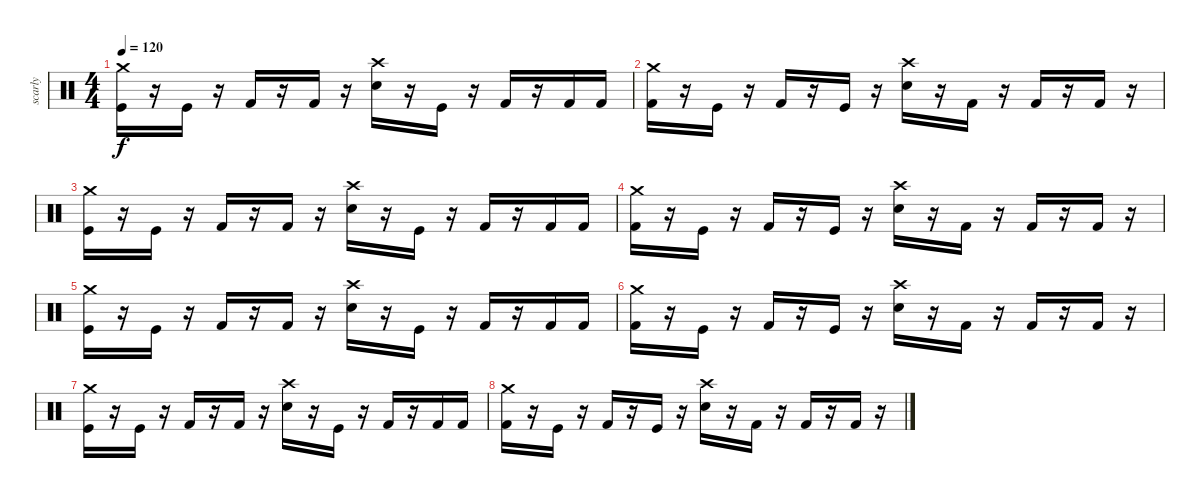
\track ("scarly" "scarly") {instrument percussion}
\staff {score}
\articulation defaults
\ts (4 4)
\tempo 120
\clef neutral
\ks c
("Kick (hit)" "Crash medium (hit)").16{dy f} r.16 "Kick (hit)".16 r.16 "Kick (hit) 2".16 r.16 "Kick (hit) 2".16 r.16 ("Snare (hit) 2" "Crash high (hit)").16 r.16 "Kick (hit)".16 r.16 "Kick (hit) 2".16 r.16 "Kick (hit) 2".16 "Kick (hit) 2".16 |
("Kick (hit) 2" "Crash medium (hit)").16 r.16 "Kick (hit)".16 r.16 "Kick (hit) 2".16 r.16 "Kick (hit)".16 r.16 ("Snare (hit) 2" "Crash high (hit)").16 r.16 "Kick (hit) 2".16 r.16 "Kick (hit) 2".16 r.16 "Kick (hit) 2".16 r.16 |
("Kick (hit)" "Crash medium (hit)").16 r.16 "Kick (hit)".16 r.16 "Kick (hit) 2".16 r.16 "Kick (hit) 2".16 r.16 ("Snare (hit) 2" "Crash high (hit)").16 r.16 "Kick (hit)".16 r.16 "Kick (hit) 2".16 r.16 "Kick (hit) 2".16 "Kick (hit) 2".16 |
("Kick (hit) 2" "Crash medium (hit)").16 r.16 "Kick (hit)".16 r.16 "Kick (hit) 2".16 r.16 "Kick (hit)".16 r.16 ("Snare (hit) 2" "Crash high (hit)").16 r.16 "Kick (hit) 2".16 r.16 "Kick (hit) 2".16 r.16 "Kick (hit) 2".16 r.16 |
("Kick (hit)" "Crash medium (hit)").16 r.16 "Kick (hit)".16 r.16 "Kick (hit) 2".16 r.16 "Kick (hit) 2".16 r.16 ("Snare (hit) 2" "Crash high (hit)").16 r.16 "Kick (hit)".16 r.16 "Kick (hit) 2".16 r.16 "Kick (hit) 2".16 "Kick (hit) 2".16 |
("Kick (hit) 2" "Crash medium (hit)").16 r.16 "Kick (hit)".16 r.16 "Kick (hit) 2".16 r.16 "Kick (hit)".16 r.16 ("Snare (hit) 2" "Crash high (hit)").16 r.16 "Kick (hit) 2".16 r.16 "Kick (hit) 2".16 r.16 "Kick (hit) 2".16 r.16 |
("Kick (hit)" "Crash medium (hit)").16 r.16 "Kick (hit)".16 r.16 "Kick (hit) 2".16 r.16 "Kick (hit) 2".16 r.16 ("Snare (hit) 2" "Crash high (hit)").16 r.16 "Kick (hit)".16 r.16 "Kick (hit) 2".16 r.16 "Kick (hit) 2".16 "Kick (hit) 2".16 |
("Kick (hit) 2" "Crash medium (hit)").16 r.16 "Kick (hit)".16 r.16 "Kick (hit) 2".16 r.16 "Kick (hit)".16 r.16 ("Snare (hit) 2" "Crash high (hit)").16 r.16 "Kick (hit) 2".16 r.16 "Kick (hit) 2".16 r.16 "Kick (hit) 2".16 r.16
